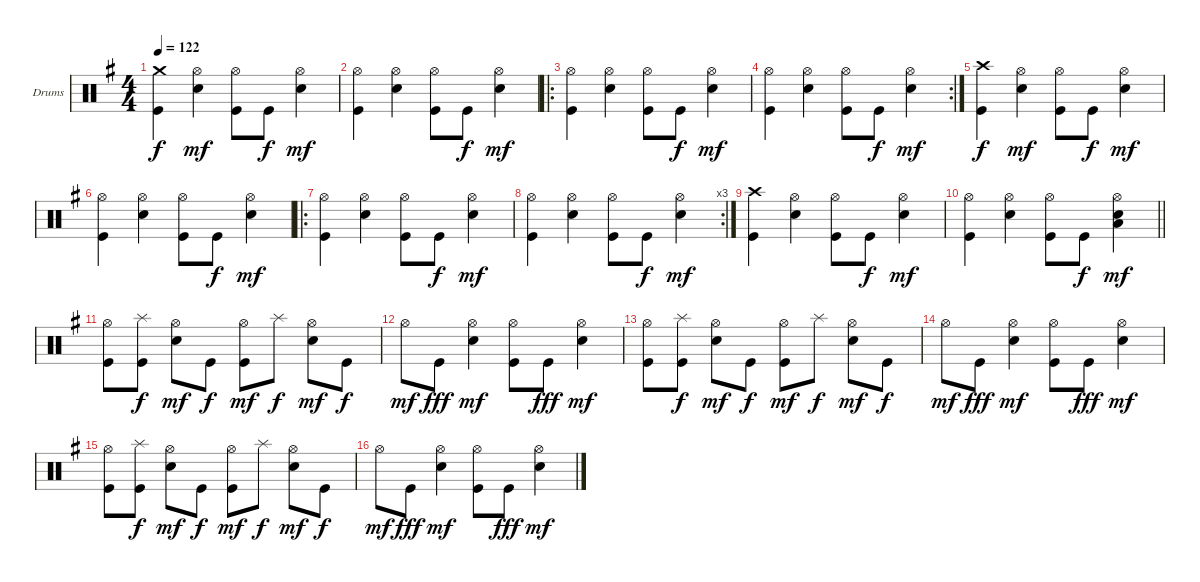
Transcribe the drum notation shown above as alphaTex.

\bracketExtendMode groupsimilarinstruments
\firstSystemTrackNameOrientation horizontal
\otherSystemsTrackNameOrientation horizontal
\track ("Drumkit" "Drums") {instrument percussion}
\staff {score}
\articulation defaults
\ts (4 4)
\tempo 122
\clef neutral
\ks g
("Crash medium (hit)" "Kick (hit)").4{dy f} ("Hi-Hat (open)" "Snare (hit) 2").4{dy mf} ("Hi-Hat (open)" "Kick (hit)").8 "Kick (hit)".8{dy f} ("Hi-Hat (open)" "Snare (hit) 2").4{dy mf} |
("Hi-Hat (open)" "Kick (hit)").4 ("Hi-Hat (open)" "Snare (hit) 2").4 ("Hi-Hat (open)" "Kick (hit)").8 "Kick (hit)".8{dy f} ("Hi-Hat (open)" "Snare (hit) 2").4{dy mf} |
\ro
("Hi-Hat (open)" "Kick (hit)").4 ("Hi-Hat (open)" "Snare (hit) 2").4 ("Hi-Hat (open)" "Kick (hit)").8 "Kick (hit)".8{dy f} ("Hi-Hat (open)" "Snare (hit) 2").4{dy mf} |
\rc 2
("Hi-Hat (open)" "Kick (hit)").4 ("Hi-Hat (open)" "Snare (hit) 2").4 ("Hi-Hat (open)" "Kick (hit)").8 "Kick (hit)".8{dy f} ("Hi-Hat (open)" "Snare (hit) 2").4{dy mf} |
("Crash high (hit)" "Kick (hit)").4{dy f} ("Hi-Hat (open)" "Snare (hit) 2").4{dy mf} ("Hi-Hat (open)" "Kick (hit)").8 "Kick (hit)".8{dy f} ("Hi-Hat (open)" "Snare (hit) 2").4{dy mf} |
("Hi-Hat (open)" "Kick (hit)").4 ("Hi-Hat (open)" "Snare (hit) 2").4 ("Hi-Hat (open)" "Kick (hit)").8 "Kick (hit)".8{dy f} ("Hi-Hat (open)" "Snare (hit) 2").4{dy mf} |
\ro
("Hi-Hat (open)" "Kick (hit)").4 ("Hi-Hat (open)" "Snare (hit) 2").4 ("Hi-Hat (open)" "Kick (hit)").8 "Kick (hit)".8{dy f} ("Hi-Hat (open)" "Snare (hit) 2").4{dy mf} |
\rc 3
("Hi-Hat (open)" "Kick (hit)").4 ("Hi-Hat (open)" "Snare (hit) 2").4 ("Hi-Hat (open)" "Kick (hit)").8 "Kick (hit)".8{dy f} ("Hi-Hat (open)" "Snare (hit) 2").4{dy mf} |
("Crash high (hit)" "Kick (hit)").4 ("Hi-Hat (open)" "Snare (hit) 2").4 ("Hi-Hat (open)" "Kick (hit)").8 "Kick (hit)".8{dy f} ("Hi-Hat (open)" "Snare (hit) 2").4{dy mf} |
\barLineRight lightlight
("Hi-Hat (open)" "Kick (hit)").4 ("Hi-Hat (open)" "Snare (hit) 2").4 ("Hi-Hat (open)" "Kick (hit)").8 "Kick (hit)".8{dy f} ("Hi-Hat (open)" "Low Tom (hit)" "Snare (hit) 2").4{dy mf} |
("Hi-Hat (open)" "Kick (hit)").8 ("Splash (hit)" "Kick (hit)").8{dy f} ("Hi-Hat (open)" "Snare (hit) 2").8{dy mf} "Kick (hit)".8{dy f} ("Hi-Hat (open)" "Kick (hit)").8{dy mf} "Splash (hit)".8{dy f} ("Hi-Hat (open)" "Snare (hit) 2").8{dy mf} "Kick (hit)".8{dy f} |
"Hi-Hat (open)".8{dy mf} "Kick (hit)".8{dy fff} ("Hi-Hat (open)" "Snare (hit) 2").4{dy mf} ("Hi-Hat (open)" "Kick (hit)").8 "Kick (hit)".8{dy fff} ("Hi-Hat (open)" "Snare (hit) 2").4{dy mf} |
("Hi-Hat (open)" "Kick (hit)").8 ("Splash (hit)" "Kick (hit)").8{dy f} ("Hi-Hat (open)" "Snare (hit) 2").8{dy mf} "Kick (hit)".8{dy f} ("Hi-Hat (open)" "Kick (hit)").8{dy mf} "Splash (hit)".8{dy f} ("Hi-Hat (open)" "Snare (hit) 2").8{dy mf} "Kick (hit)".8{dy f} |
"Hi-Hat (open)".8{dy mf} "Kick (hit)".8{dy fff} ("Hi-Hat (open)" "Snare (hit) 2").4{dy mf} ("Hi-Hat (open)" "Kick (hit)").8 "Kick (hit)".8{dy fff} ("Hi-Hat (open)" "Snare (hit) 2").4{dy mf} |
("Hi-Hat (open)" "Kick (hit)").8 ("Splash (hit)" "Kick (hit)").8{dy f} ("Hi-Hat (open)" "Snare (hit) 2").8{dy mf} "Kick (hit)".8{dy f} ("Hi-Hat (open)" "Kick (hit)").8{dy mf} "Splash (hit)".8{dy f} ("Hi-Hat (open)" "Snare (hit) 2").8{dy mf} "Kick (hit)".8{dy f} |
"Hi-Hat (open)".8{dy mf} "Kick (hit)".8{dy fff} ("Hi-Hat (open)" "Snare (hit) 2").4{dy mf} ("Hi-Hat (open)" "Kick (hit)").8 "Kick (hit)".8{dy fff} ("Hi-Hat (open)" "Snare (hit) 2").4{dy mf}
